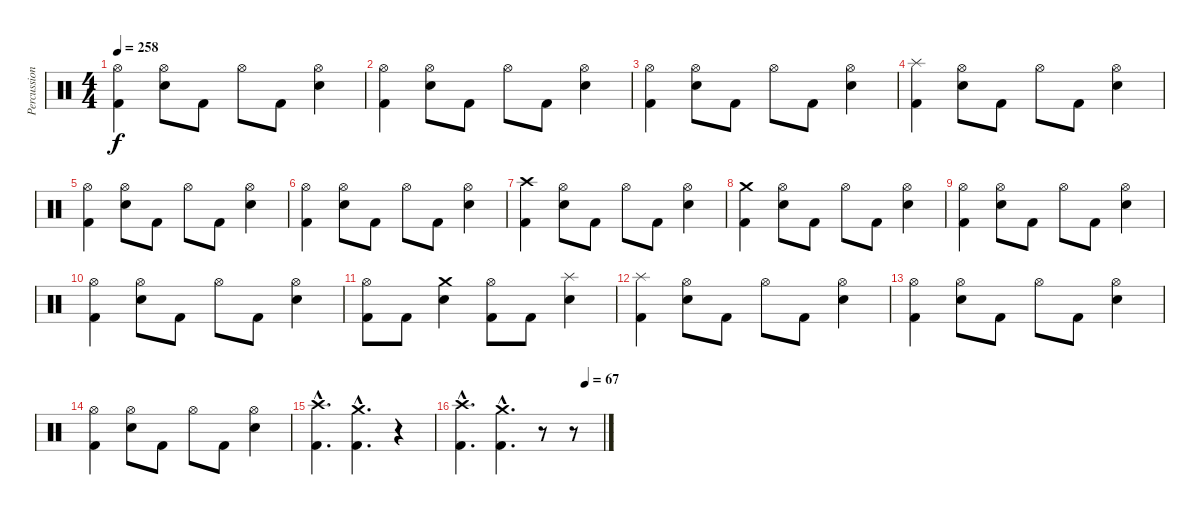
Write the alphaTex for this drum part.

\track ("Percussions" "Percussion") {instrument percussion}
\staff {score}
\articulation defaults
\ts (4 4)
\tempo 258
\clef neutral
\ks c
("Kick (hit) 2" "Hi-Hat (open)").4{dy f} ("Electric Snare (hit)" "Hi-Hat (open)").8 "Kick (hit) 2".8 "Hi-Hat (open)".8 "Kick (hit) 2".8 ("Electric Snare (hit)" "Hi-Hat (open)").4 |
("Kick (hit) 2" "Hi-Hat (open)").4 ("Electric Snare (hit)" "Hi-Hat (open)").8 "Kick (hit) 2".8 "Hi-Hat (open)".8 "Kick (hit) 2".8 ("Electric Snare (hit)" "Hi-Hat (open)").4 |
("Kick (hit) 2" "Hi-Hat (open)").4 ("Electric Snare (hit)" "Hi-Hat (open)").8 "Kick (hit) 2".8 "Hi-Hat (open)".8 "Kick (hit) 2".8 ("Electric Snare (hit)" "Hi-Hat (open)").4 |
("Kick (hit) 2" "Splash (hit)").4 ("Electric Snare (hit)" "Hi-Hat (open)").8 "Kick (hit) 2".8 "Hi-Hat (open)".8 "Kick (hit) 2".8 ("Electric Snare (hit)" "Hi-Hat (open)").4 |
("Kick (hit) 2" "Hi-Hat (open)").4 ("Electric Snare (hit)" "Hi-Hat (open)").8 "Kick (hit) 2".8 "Hi-Hat (open)".8 "Kick (hit) 2".8 ("Electric Snare (hit)" "Hi-Hat (open)").4 |
("Kick (hit) 2" "Hi-Hat (open)").4 ("Electric Snare (hit)" "Hi-Hat (open)").8 "Kick (hit) 2".8 "Hi-Hat (open)".8 "Kick (hit) 2".8 ("Electric Snare (hit)" "Hi-Hat (open)").4 |
("Kick (hit) 2" "Crash high (hit)").4 ("Electric Snare (hit)" "Hi-Hat (open)").8 "Kick (hit) 2".8 "Hi-Hat (open)".8 "Kick (hit) 2".8 ("Electric Snare (hit)" "Hi-Hat (open)").4 |
("Kick (hit) 2" "Crash medium (hit)").4 ("Electric Snare (hit)" "Hi-Hat (open)").8 "Kick (hit) 2".8 "Hi-Hat (open)".8 "Kick (hit) 2".8 ("Electric Snare (hit)" "Hi-Hat (open)").4 |
("Kick (hit) 2" "Hi-Hat (open)").4 ("Electric Snare (hit)" "Hi-Hat (open)").8 "Kick (hit) 2".8 "Hi-Hat (open)".8 "Kick (hit) 2".8 ("Electric Snare (hit)" "Hi-Hat (open)").4 |
("Kick (hit) 2" "Hi-Hat (open)").4 ("Electric Snare (hit)" "Hi-Hat (open)").8 "Kick (hit) 2".8 "Hi-Hat (open)".8 "Kick (hit) 2".8 ("Electric Snare (hit)" "Hi-Hat (open)").4 |
("Kick (hit) 2" "Hi-Hat (open)").8 "Kick (hit) 2".8 ("Electric Snare (hit)" "Crash medium (hit)").4 ("Kick (hit) 2" "Hi-Hat (open)").8 "Kick (hit) 2".8 ("Electric Snare (hit)" "Splash (hit)").4 |
("Kick (hit) 2" "Splash (hit)").4 ("Electric Snare (hit)" "Hi-Hat (open)").8 "Kick (hit) 2".8 "Hi-Hat (open)".8 "Kick (hit) 2".8 ("Electric Snare (hit)" "Hi-Hat (open)").4 |
("Kick (hit) 2" "Hi-Hat (open)").4 ("Electric Snare (hit)" "Hi-Hat (open)").8 "Kick (hit) 2".8 "Hi-Hat (open)".8 "Kick (hit) 2".8 ("Electric Snare (hit)" "Hi-Hat (open)").4 |
("Kick (hit) 2" "Hi-Hat (open)").4 ("Electric Snare (hit)" "Hi-Hat (open)").8 "Kick (hit) 2".8 "Hi-Hat (open)".8 "Kick (hit) 2".8 ("Electric Snare (hit)" "Hi-Hat (open)").4 |
("Kick (hit) 2"{hac} "Crash high (hit)"{hac}).4{d} ("Kick (hit) 2"{hac} "Crash medium (hit)"{hac}).4{d} r.4 |
\tempo (67 0.875)
("Kick (hit) 2"{hac} "Crash high (hit)"{hac}).4{d} ("Kick (hit) 2"{hac} "Crash medium (hit)"{hac}).4{d} r.8 r.8
